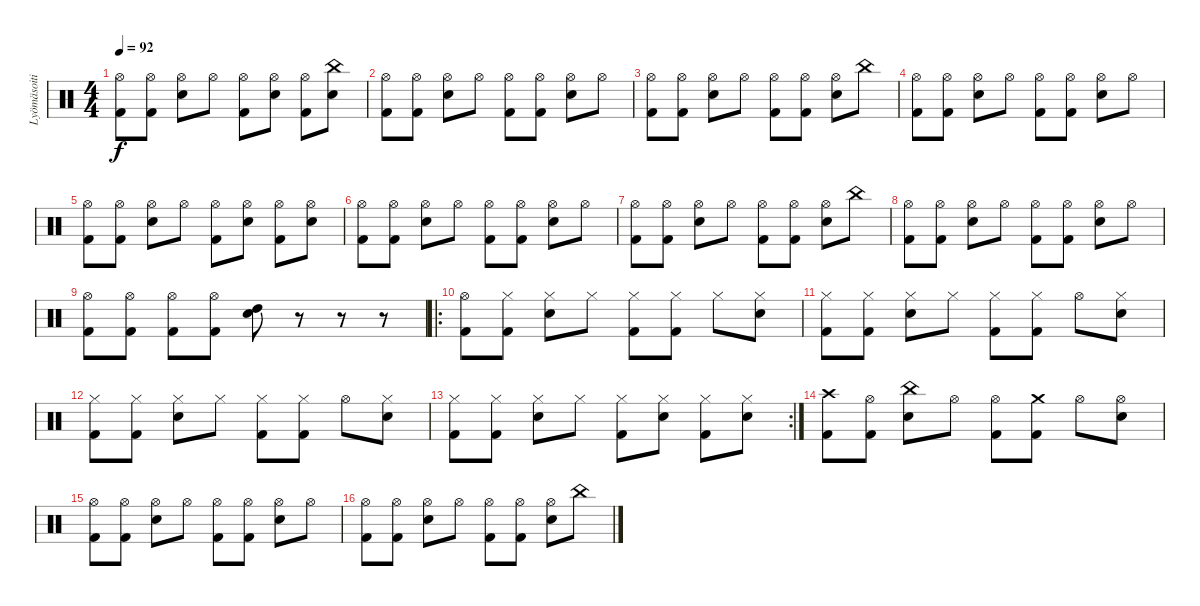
\track ("Lyömäsoitin" "Lyömäsoiti") {instrument percussion}
\staff {score}
\articulation defaults
\ts (4 4)
\tempo 92
\clef neutral
\ks c
("Hi-Hat (open)" "Kick (hit) 2").8{dy f} ("Hi-Hat (open)" "Kick (hit) 2").8 ("Hi-Hat (open)" "Snare (hit) 2").8 "Hi-Hat (open)".8 ("Hi-Hat (open)" "Kick (hit) 2").8 ("Hi-Hat (open)" "Snare (hit) 2").8 ("Hi-Hat (open)" "Kick (hit) 2").8 ("China (hit)" "Snare (hit) 2").8 |
("Hi-Hat (open)" "Kick (hit) 2").8 ("Hi-Hat (open)" "Kick (hit) 2").8 ("Hi-Hat (open)" "Snare (hit) 2").8 "Hi-Hat (open)".8 ("Hi-Hat (open)" "Kick (hit) 2").8 ("Hi-Hat (open)" "Kick (hit) 2").8 ("Hi-Hat (open)" "Snare (hit) 2").8 "Hi-Hat (open)".8 |
("Hi-Hat (open)" "Kick (hit) 2").8 ("Hi-Hat (open)" "Kick (hit) 2").8 ("Hi-Hat (open)" "Snare (hit) 2").8 "Hi-Hat (open)".8 ("Hi-Hat (open)" "Kick (hit) 2").8 ("Hi-Hat (open)" "Kick (hit) 2").8 ("Hi-Hat (open)" "Snare (hit) 2").8 "China (hit)".8 |
("Hi-Hat (open)" "Kick (hit) 2").8 ("Hi-Hat (open)" "Kick (hit) 2").8 ("Hi-Hat (open)" "Snare (hit) 2").8 "Hi-Hat (open)".8 ("Hi-Hat (open)" "Kick (hit) 2").8 ("Hi-Hat (open)" "Kick (hit) 2").8 ("Hi-Hat (open)" "Snare (hit) 2").8 "Hi-Hat (open)".8 |
("Hi-Hat (open)" "Kick (hit) 2").8 ("Hi-Hat (open)" "Kick (hit) 2").8 ("Hi-Hat (open)" "Snare (hit) 2").8 "Hi-Hat (open)".8 ("Hi-Hat (open)" "Kick (hit) 2").8 ("Hi-Hat (open)" "Snare (hit) 2").8 ("Hi-Hat (open)" "Kick (hit) 2").8 ("Hi-Hat (open)" "Snare (hit) 2").8 |
("Hi-Hat (open)" "Kick (hit) 2").8 ("Hi-Hat (open)" "Kick (hit) 2").8 ("Hi-Hat (open)" "Snare (hit) 2").8 "Hi-Hat (open)".8 ("Hi-Hat (open)" "Kick (hit) 2").8 ("Hi-Hat (open)" "Kick (hit) 2").8 ("Hi-Hat (open)" "Snare (hit) 2").8 "Hi-Hat (open)".8 |
("Hi-Hat (open)" "Kick (hit) 2").8 ("Hi-Hat (open)" "Kick (hit) 2").8 ("Hi-Hat (open)" "Snare (hit) 2").8 "Hi-Hat (open)".8 ("Hi-Hat (open)" "Kick (hit) 2").8 ("Hi-Hat (open)" "Kick (hit) 2").8 ("Hi-Hat (open)" "Snare (hit) 2").8 "China (hit)".8 |
("Hi-Hat (open)" "Kick (hit) 2").8 ("Hi-Hat (open)" "Kick (hit) 2").8 ("Hi-Hat (open)" "Snare (hit) 2").8 "Hi-Hat (open)".8 ("Hi-Hat (open)" "Kick (hit) 2").8 ("Hi-Hat (open)" "Kick (hit) 2").8 ("Hi-Hat (open)" "Snare (hit) 2").8 "Hi-Hat (open)".8 |
("Hi-Hat (open)" "Kick (hit) 2").8 ("Hi-Hat (open)" "Kick (hit) 2").8 ("Hi-Hat (open)" "Kick (hit) 2").8 ("Hi-Hat (open)" "Kick (hit) 2").8 ("Snare (hit) 2" "High Tom (hit)").8 r.8 r.8 r.8 |
\ro
("Hi-Hat (open)" "Kick (hit) 2").8 ("Hi-Hat (closed)" "Kick (hit) 2").8 ("Hi-Hat (closed)" "Snare (hit) 2").8 "Hi-Hat (closed)".8 ("Hi-Hat (closed)" "Kick (hit) 2").8 ("Hi-Hat (closed)" "Kick (hit) 2").8 "Hi-Hat (closed)".8 ("Hi-Hat (closed)" "Snare (hit) 2").8 |
("Hi-Hat (closed)" "Kick (hit) 2").8 ("Hi-Hat (closed)" "Kick (hit) 2").8 ("Hi-Hat (closed)" "Snare (hit) 2").8 "Hi-Hat (closed)".8 ("Hi-Hat (closed)" "Kick (hit) 2").8 ("Hi-Hat (closed)" "Kick (hit) 2").8 "Hi-Hat (open)".8 ("Hi-Hat (closed)" "Snare (hit) 2").8 |
("Hi-Hat (closed)" "Kick (hit) 2").8 ("Hi-Hat (closed)" "Kick (hit) 2").8 ("Hi-Hat (closed)" "Snare (hit) 2").8 "Hi-Hat (closed)".8 ("Hi-Hat (closed)" "Kick (hit) 2").8 ("Hi-Hat (closed)" "Kick (hit) 2").8 "Hi-Hat (open)".8 ("Hi-Hat (closed)" "Snare (hit) 2").8 |
\rc 2
("Hi-Hat (closed)" "Kick (hit) 2").8 ("Hi-Hat (closed)" "Kick (hit) 2").8 ("Hi-Hat (closed)" "Snare (hit) 2").8 "Hi-Hat (closed)".8 ("Hi-Hat (closed)" "Kick (hit) 2").8 ("Hi-Hat (closed)" "Snare (hit) 2").8 ("Hi-Hat (closed)" "Kick (hit) 2").8 ("Hi-Hat (closed)" "Snare (hit) 2").8 |
("Crash high (hit)" "Kick (hit) 2").8 ("Hi-Hat (open)" "Kick (hit) 2").8 ("China (hit)" "Snare (hit) 2").8 "Hi-Hat (open)".8 ("Hi-Hat (open)" "Kick (hit) 2").8 ("Crash medium (hit)" "Kick (hit) 2").8 "Hi-Hat (open)".8 ("Hi-Hat (open)" "Snare (hit) 2").8 |
("Hi-Hat (open)" "Kick (hit) 2").8 ("Hi-Hat (open)" "Kick (hit) 2").8 ("Hi-Hat (open)" "Snare (hit) 2").8 "Hi-Hat (open)".8 ("Hi-Hat (open)" "Kick (hit) 2").8 ("Hi-Hat (open)" "Kick (hit) 2").8 ("Hi-Hat (open)" "Snare (hit) 2").8 "Hi-Hat (open)".8 |
("Hi-Hat (open)" "Kick (hit) 2").8 ("Hi-Hat (open)" "Kick (hit) 2").8 ("Hi-Hat (open)" "Snare (hit) 2").8 "Hi-Hat (open)".8 ("Hi-Hat (open)" "Kick (hit) 2").8 ("Hi-Hat (open)" "Kick (hit) 2").8 ("Hi-Hat (open)" "Snare (hit) 2").8 "China (hit)".8
